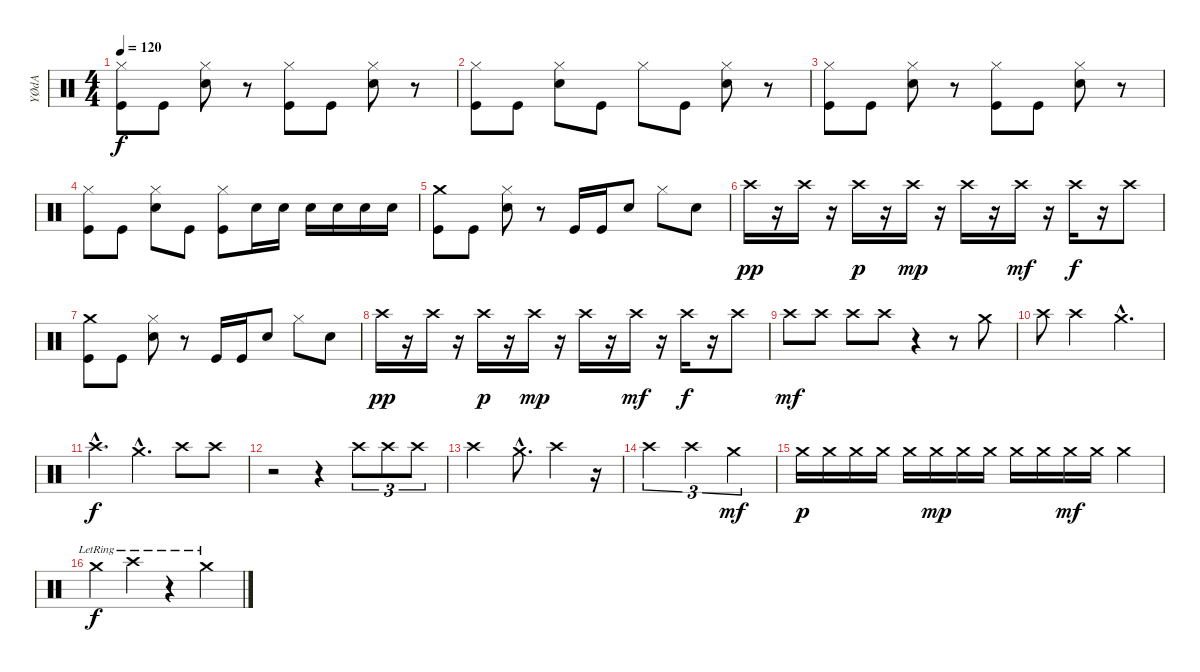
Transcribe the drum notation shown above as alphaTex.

\track ("YØdA" "YØdA") {instrument percussion}
\staff {score}
\articulation defaults
\ts (4 4)
\tempo 120
\clef neutral
\ks c
("Hi-Hat (closed)" "Kick (hit)").8{dy f} "Kick (hit)".8 ("Hi-Hat (closed)" "Electric Snare (hit)").8 r.8 ("Hi-Hat (closed)" "Kick (hit)").8 "Kick (hit)".8 ("Hi-Hat (closed)" "Electric Snare (hit)").8 r.8 |
("Hi-Hat (closed)" "Kick (hit)").8 "Kick (hit)".8 ("Hi-Hat (closed)" "Electric Snare (hit)").8 "Kick (hit)".8 "Hi-Hat (closed)".8 "Kick (hit)".8 ("Hi-Hat (closed)" "Electric Snare (hit)").8 r.8 |
("Hi-Hat (closed)" "Kick (hit)").8 "Kick (hit)".8 ("Hi-Hat (closed)" "Electric Snare (hit)").8 r.8 ("Hi-Hat (closed)" "Kick (hit)").8 "Kick (hit)".8 ("Hi-Hat (closed)" "Electric Snare (hit)").8 r.8 |
("Hi-Hat (closed)" "Kick (hit)").8 "Kick (hit)".8 ("Hi-Hat (closed)" "Electric Snare (hit)").8 "Kick (hit)".8 ("Hi-Hat (closed)" "Kick (hit)").8 "Electric Snare (hit)".16 "Electric Snare (hit)".16 "Electric Snare (hit)".16 "Electric Snare (hit)".16 "Electric Snare (hit)".16 "Electric Snare (hit)".16 |
("Crash medium (hit)" "Kick (hit)").8 "Kick (hit)".8 ("Hi-Hat (closed)" "Electric Snare (hit)").8 r.8 "Kick (hit)".16 "Kick (hit)".16 "Electric Snare (hit)".8 "Hi-Hat (closed)".8 "Electric Snare (hit)".8 |
"Crash high (hit)".16{dy pp} r.16 "Crash high (hit)".16 r.16 "Crash high (hit)".16{dy p} r.16 "Crash high (hit)".16{dy mp} r.16 "Crash high (hit)".16 r.16 "Crash high (hit)".16{dy mf} r.16 "Crash high (hit)".16{dy f} r.16 "Crash high (hit)".8 |
("Crash medium (hit)" "Kick (hit)").8 "Kick (hit)".8 ("Hi-Hat (closed)" "Electric Snare (hit)").8 r.8 "Kick (hit)".16 "Kick (hit)".16 "Electric Snare (hit)".8 "Hi-Hat (closed)".8 "Electric Snare (hit)".8 |
"Crash high (hit)".16{dy pp} r.16 "Crash high (hit)".16 r.16 "Crash high (hit)".16{dy p} r.16 "Crash high (hit)".16{dy mp} r.16 "Crash high (hit)".16 r.16 "Crash high (hit)".16{dy mf} r.16 "Crash high (hit)".16{dy f} r.16 "Crash high (hit)".8 |
"Crash high (hit)".8{dy mf} "Crash high (hit)".8 "Crash high (hit)".8 "Crash high (hit)".8 r.4 r.8 "Crash medium (hit)".8 |
"Crash high (hit)".8 "Crash high (hit)".2 "Crash medium (hit)"{hac}.4{d} |
"Crash high (hit)"{hac}.4{d dy f} "Crash medium (hit)"{hac}.4{d} "Crash high (hit)".8 "Crash high (hit)".8 |
r.2 r.4 "Crash high (hit)".8{tu (3 2)} "Crash high (hit)".8{tu (3 2)} "Crash high (hit)".8{tu (3 2)} |
"Crash high (hit)".2 "Crash medium (hit)"{hac}.8{d} "Crash high (hit)".4 r.16 |
"Crash high (hit)".2{tu (3 2)} "Crash high (hit)".2{tu (3 2)} "Crash medium (hit)".2{tu (3 2) dy mf} |
"Crash medium (hit)".16{dy p} "Crash medium (hit)".16 "Crash medium (hit)".16 "Crash medium (hit)".16 "Crash medium (hit)".16 "Crash medium (hit)".16{dy mp} "Crash medium (hit)".16 "Crash medium (hit)".16 "Crash medium (hit)".16 "Crash medium (hit)".16 "Crash medium (hit)".16{dy mf} "Crash medium (hit)".16 "Crash medium (hit)".4 |
"Crash medium (hit)"{lr}.4{dy f} "Crash high (hit)"{lr}.4 r.4 "Crash medium (hit)"{lr}.4
